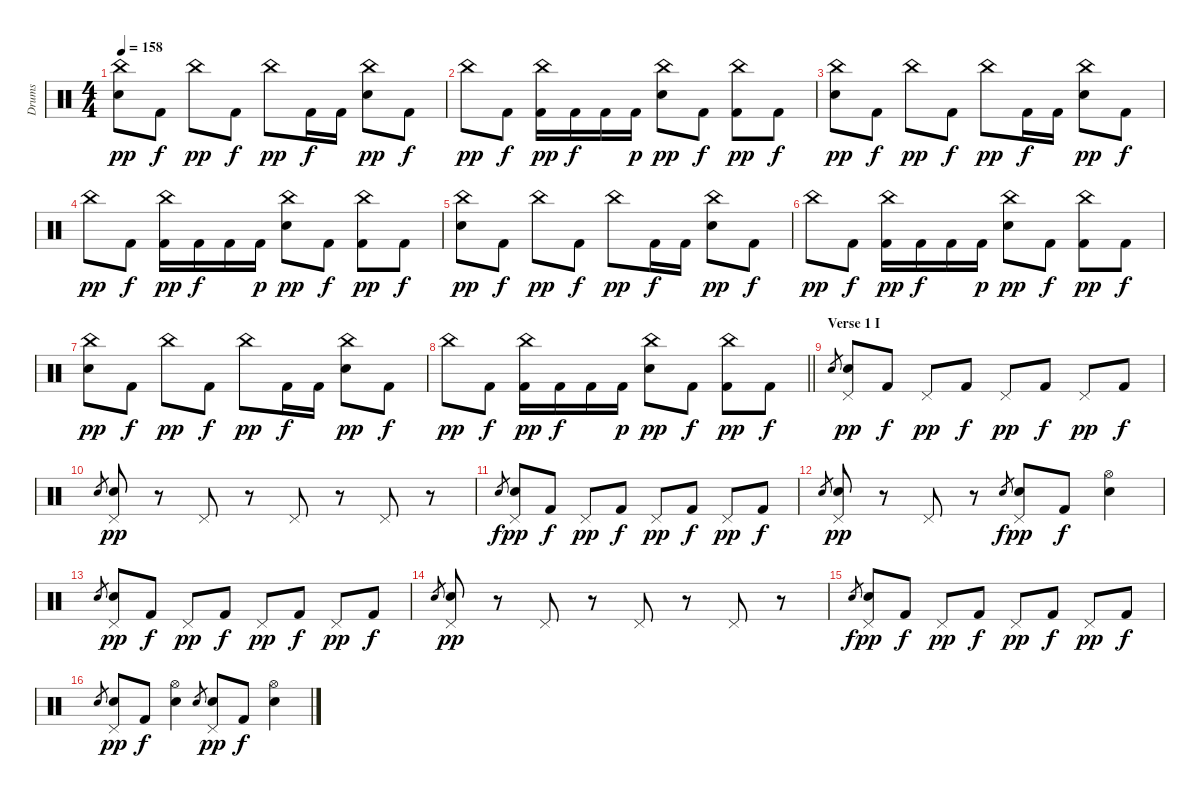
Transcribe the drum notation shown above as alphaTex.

\track ("Drums" "Drums") {instrument percussion}
\staff {score}
\articulation defaults
\ts (4 4)
\tempo 158
\clef neutral
\ks c
("China (hit)" "Snare (hit) 2").8{dy pp} "Kick (hit) 2".8{dy f} "China (hit)".8{dy pp} "Kick (hit) 2".8{dy f} "China (hit)".8{dy pp} "Kick (hit) 2".16{dy f} "Kick (hit) 2".16 ("China (hit)" "Snare (hit) 2").8{dy pp} "Kick (hit) 2".8{dy f} |
"China (hit)".8{dy pp} "Kick (hit) 2".8{dy f} ("China (hit)" "Kick (hit) 2").16{dy pp} "Kick (hit) 2".16{dy f} "Kick (hit) 2".16 "Kick (hit) 2".16{dy p} ("China (hit)" "Snare (hit) 2").8{dy pp} "Kick (hit) 2".8{dy f} ("China (hit)" "Kick (hit) 2").8{dy pp} "Kick (hit) 2".8{dy f} |
("China (hit)" "Snare (hit) 2").8{dy pp} "Kick (hit) 2".8{dy f} "China (hit)".8{dy pp} "Kick (hit) 2".8{dy f} "China (hit)".8{dy pp} "Kick (hit) 2".16{dy f} "Kick (hit) 2".16 ("China (hit)" "Snare (hit) 2").8{dy pp} "Kick (hit) 2".8{dy f} |
"China (hit)".8{dy pp} "Kick (hit) 2".8{dy f} ("China (hit)" "Kick (hit) 2").16{dy pp} "Kick (hit) 2".16{dy f} "Kick (hit) 2".16 "Kick (hit) 2".16{dy p} ("China (hit)" "Snare (hit) 2").8{dy pp} "Kick (hit) 2".8{dy f} ("China (hit)" "Kick (hit) 2").8{dy pp} "Kick (hit) 2".8{dy f} |
("China (hit)" "Snare (hit) 2").8{dy pp} "Kick (hit) 2".8{dy f} "China (hit)".8{dy pp} "Kick (hit) 2".8{dy f} "China (hit)".8{dy pp} "Kick (hit) 2".16{dy f} "Kick (hit) 2".16 ("China (hit)" "Snare (hit) 2").8{dy pp} "Kick (hit) 2".8{dy f} |
"China (hit)".8{dy pp} "Kick (hit) 2".8{dy f} ("China (hit)" "Kick (hit) 2").16{dy pp} "Kick (hit) 2".16{dy f} "Kick (hit) 2".16 "Kick (hit) 2".16{dy p} ("China (hit)" "Snare (hit) 2").8{dy pp} "Kick (hit) 2".8{dy f} ("China (hit)" "Kick (hit) 2").8{dy pp} "Kick (hit) 2".8{dy f} |
("China (hit)" "Snare (hit) 2").8{dy pp} "Kick (hit) 2".8{dy f} "China (hit)".8{dy pp} "Kick (hit) 2".8{dy f} "China (hit)".8{dy pp} "Kick (hit) 2".16{dy f} "Kick (hit) 2".16 ("China (hit)" "Snare (hit) 2").8{dy pp} "Kick (hit) 2".8{dy f} |
\barLineRight lightlight "China (hit)".8{dy pp} "Kick (hit) 2".8{dy f}
("China (hit)" "Kick (hit) 2").16{dy pp} "Kick (hit) 2".16{dy f} "Kick (hit) 2".16 "Kick (hit) 2".16{dy p} ("China (hit)" "Snare (hit) 2").8{dy pp} "Kick (hit) 2".8{dy f} ("China (hit)" "Kick (hit) 2").8{dy pp} "Kick (hit) 2".8{dy f} |
\section ("" "Verse 1 I")
"Snare (hit) 2".8{gr} ("Pedal Hi-Hat (hit)" "Snare (hit) 2").8{dy pp} "Kick (hit) 2".8{dy f} "Pedal Hi-Hat (hit)".8{dy pp} "Kick (hit) 2".8{dy f} "Pedal Hi-Hat (hit)".8{dy pp} "Kick (hit) 2".8{dy f} "Pedal Hi-Hat (hit)".8{dy pp} "Kick (hit) 2".8{dy f} |
"Snare (hit) 2".8{gr} ("Pedal Hi-Hat (hit)" "Snare (hit) 2").8{dy pp} r.8 "Pedal Hi-Hat (hit)".8 r.8 "Pedal Hi-Hat (hit)".8 r.8 "Pedal Hi-Hat (hit)".8 r.8 |
"Snare (hit) 2".8{gr dy f} ("Pedal Hi-Hat (hit)" "Snare (hit) 2").8{dy pp} "Kick (hit) 2".8{dy f} "Pedal Hi-Hat (hit)".8{dy pp} "Kick (hit) 2".8{dy f} "Pedal Hi-Hat (hit)".8{dy pp} "Kick (hit) 2".8{dy f} "Pedal Hi-Hat (hit)".8{dy pp} "Kick (hit) 2".8{dy f} |
"Snare (hit) 2".8{gr} ("Pedal Hi-Hat (hit)" "Snare (hit) 2").8{dy pp} r.8 "Pedal Hi-Hat (hit)".8 r.8 "Snare (hit) 2".8{gr dy f} ("Pedal Hi-Hat (hit)" "Snare (hit) 2").8{dy pp} "Kick (hit) 2".8{dy f} ("Hi-Hat (open)" "Snare (hit) 2").4 |
"Snare (hit) 2".8{gr} ("Pedal Hi-Hat (hit)" "Snare (hit) 2").8{dy pp} "Kick (hit) 2".8{dy f} "Pedal Hi-Hat (hit)".8{dy pp} "Kick (hit) 2".8{dy f} "Pedal Hi-Hat (hit)".8{dy pp} "Kick (hit) 2".8{dy f} "Pedal Hi-Hat (hit)".8{dy pp} "Kick (hit) 2".8{dy f} |
"Snare (hit) 2".8{gr} ("Pedal Hi-Hat (hit)" "Snare (hit) 2").8{dy pp} r.8 "Pedal Hi-Hat (hit)".8 r.8 "Pedal Hi-Hat (hit)".8 r.8 "Pedal Hi-Hat (hit)".8 r.8 |
"Snare (hit) 2".8{gr dy f} ("Pedal Hi-Hat (hit)" "Snare (hit) 2").8{dy pp} "Kick (hit) 2".8{dy f} "Pedal Hi-Hat (hit)".8{dy pp} "Kick (hit) 2".8{dy f} "Pedal Hi-Hat (hit)".8{dy pp} "Kick (hit) 2".8{dy f} "Pedal Hi-Hat (hit)".8{dy pp} "Kick (hit) 2".8{dy f} |
"Snare (hit) 2".8{gr} ("Pedal Hi-Hat (hit)" "Snare (hit) 2").8{dy pp} "Kick (hit) 2".8{dy f} ("Hi-Hat (open)" "Snare (hit) 2").4 "Snare (hit) 2".8{gr} ("Pedal Hi-Hat (hit)" "Snare (hit) 2").8{dy pp} "Kick (hit) 2".8{dy f} ("Hi-Hat (open)" "Snare (hit) 2").4
